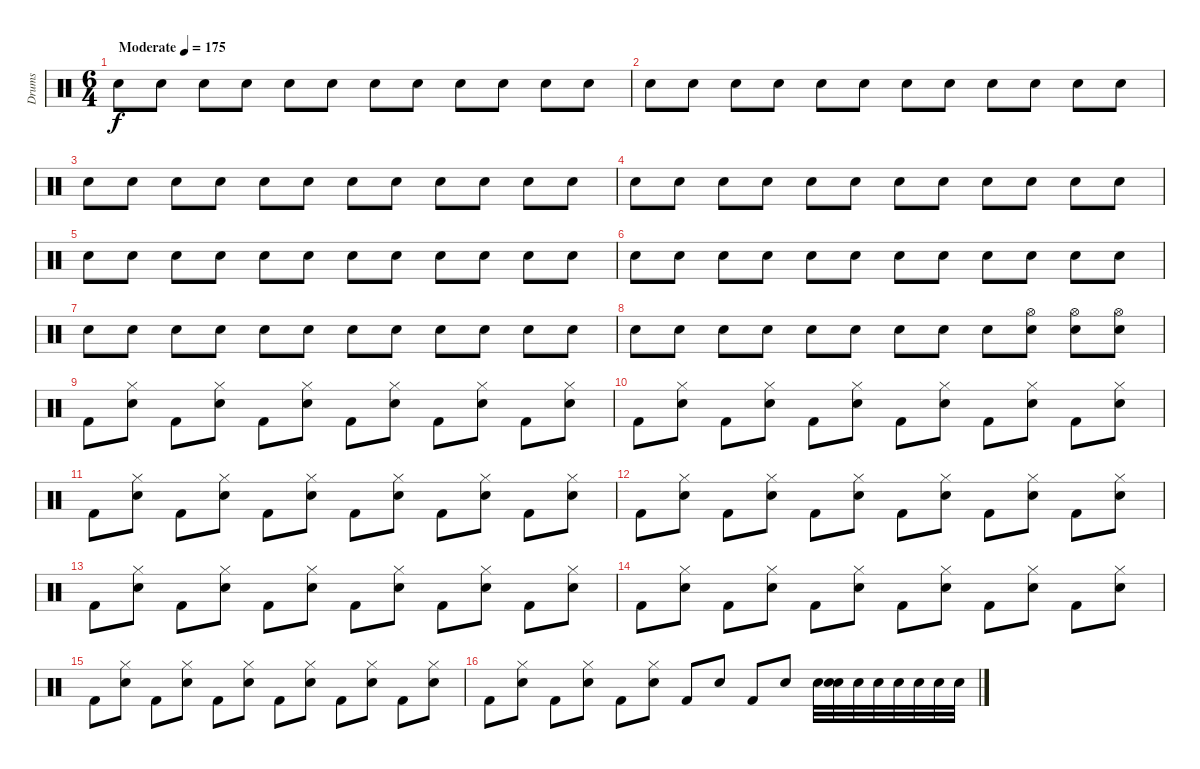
\track ("Drums" "Drums") {instrument percussion}
\staff {score}
\articulation defaults
\ts (6 4)
\tempo (175 "Moderate")
\clef neutral
\ks c "Snare (hit) 2".8{dy f} "Snare (hit) 2".8 "Snare (hit) 2".8 "Snare (hit) 2".8 "Snare (hit) 2".8 "Snare (hit) 2".8 "Snare (hit) 2".8 "Snare (hit) 2".8 "Snare (hit) 2".8 "Snare (hit) 2".8 "Snare (hit) 2".8 "Snare (hit) 2".8
|
"Snare (hit) 2".8 "Snare (hit) 2".8 "Snare (hit) 2".8 "Snare (hit) 2".8 "Snare (hit) 2".8 "Snare (hit) 2".8 "Snare (hit) 2".8 "Snare (hit) 2".8 "Snare (hit) 2".8 "Snare (hit) 2".8 "Snare (hit) 2".8 "Snare (hit) 2".8 |
"Snare (hit) 2".8 "Snare (hit) 2".8 "Snare (hit) 2".8 "Snare (hit) 2".8 "Snare (hit) 2".8 "Snare (hit) 2".8 "Snare (hit) 2".8 "Snare (hit) 2".8 "Snare (hit) 2".8 "Snare (hit) 2".8 "Snare (hit) 2".8 "Snare (hit) 2".8 |
"Snare (hit) 2".8 "Snare (hit) 2".8 "Snare (hit) 2".8 "Snare (hit) 2".8 "Snare (hit) 2".8 "Snare (hit) 2".8 "Snare (hit) 2".8 "Snare (hit) 2".8 "Snare (hit) 2".8 "Snare (hit) 2".8 "Snare (hit) 2".8 "Snare (hit) 2".8 |
"Snare (hit) 2".8 "Snare (hit) 2".8 "Snare (hit) 2".8 "Snare (hit) 2".8 "Snare (hit) 2".8 "Snare (hit) 2".8 "Snare (hit) 2".8 "Snare (hit) 2".8 "Snare (hit) 2".8 "Snare (hit) 2".8 "Snare (hit) 2".8 "Snare (hit) 2".8 |
"Snare (hit) 2".8 "Snare (hit) 2".8 "Snare (hit) 2".8 "Snare (hit) 2".8 "Snare (hit) 2".8 "Snare (hit) 2".8 "Snare (hit) 2".8 "Snare (hit) 2".8 "Snare (hit) 2".8 "Snare (hit) 2".8 "Snare (hit) 2".8 "Snare (hit) 2".8 |
"Snare (hit) 2".8 "Snare (hit) 2".8 "Snare (hit) 2".8 "Snare (hit) 2".8 "Snare (hit) 2".8 "Snare (hit) 2".8 "Snare (hit) 2".8 "Snare (hit) 2".8 "Snare (hit) 2".8 "Snare (hit) 2".8 "Snare (hit) 2".8 "Snare (hit) 2".8 |
"Snare (hit) 2".8 "Snare (hit) 2".8 "Snare (hit) 2".8 "Snare (hit) 2".8 "Snare (hit) 2".8 "Snare (hit) 2".8 "Snare (hit) 2".8 "Snare (hit) 2".8 "Snare (hit) 2".8 ("Hi-Hat (open)" "Snare (hit) 2").8 ("Hi-Hat (open)" "Snare (hit) 2").8 ("Hi-Hat (open)" "Snare (hit) 2").8 |
"Kick (hit) 2".8 ("Hi-Hat (closed)" "Snare (hit) 2").8 "Kick (hit) 2".8 ("Hi-Hat (closed)" "Snare (hit) 2").8 "Kick (hit) 2".8 ("Hi-Hat (closed)" "Snare (hit) 2").8 "Kick (hit) 2".8 ("Hi-Hat (closed)" "Snare (hit) 2").8 "Kick (hit) 2".8 ("Hi-Hat (closed)" "Snare (hit) 2").8 "Kick (hit) 2".8 ("Hi-Hat (closed)" "Snare (hit) 2").8 |
"Kick (hit) 2".8 ("Hi-Hat (closed)" "Snare (hit) 2").8 "Kick (hit) 2".8 ("Hi-Hat (closed)" "Snare (hit) 2").8 "Kick (hit) 2".8 ("Hi-Hat (closed)" "Snare (hit) 2").8 "Kick (hit) 2".8 ("Hi-Hat (closed)" "Snare (hit) 2").8 "Kick (hit) 2".8 ("Hi-Hat (closed)" "Snare (hit) 2").8 "Kick (hit) 2".8 ("Hi-Hat (closed)" "Snare (hit) 2").8 |
"Kick (hit) 2".8 ("Hi-Hat (closed)" "Snare (hit) 2").8 "Kick (hit) 2".8 ("Hi-Hat (closed)" "Snare (hit) 2").8 "Kick (hit) 2".8 ("Hi-Hat (closed)" "Snare (hit) 2").8 "Kick (hit) 2".8 ("Hi-Hat (closed)" "Snare (hit) 2").8 "Kick (hit) 2".8 ("Hi-Hat (closed)" "Snare (hit) 2").8 "Kick (hit) 2".8 ("Hi-Hat (closed)" "Snare (hit) 2").8 |
"Kick (hit) 2".8 ("Hi-Hat (closed)" "Snare (hit) 2").8 "Kick (hit) 2".8 ("Hi-Hat (closed)" "Snare (hit) 2").8 "Kick (hit) 2".8 ("Hi-Hat (closed)" "Snare (hit) 2").8 "Kick (hit) 2".8 ("Hi-Hat (closed)" "Snare (hit) 2").8 "Kick (hit) 2".8 ("Hi-Hat (closed)" "Snare (hit) 2").8 "Kick (hit) 2".8 ("Hi-Hat (closed)" "Snare (hit) 2").8 |
"Kick (hit) 2".8 ("Hi-Hat (closed)" "Snare (hit) 2").8 "Kick (hit) 2".8 ("Hi-Hat (closed)" "Snare (hit) 2").8 "Kick (hit) 2".8 ("Hi-Hat (closed)" "Snare (hit) 2").8 "Kick (hit) 2".8 ("Hi-Hat (closed)" "Snare (hit) 2").8 "Kick (hit) 2".8 ("Hi-Hat (closed)" "Snare (hit) 2").8 "Kick (hit) 2".8 ("Hi-Hat (closed)" "Snare (hit) 2").8 |
"Kick (hit) 2".8 ("Hi-Hat (closed)" "Snare (hit) 2").8 "Kick (hit) 2".8 ("Hi-Hat (closed)" "Snare (hit) 2").8 "Kick (hit) 2".8 ("Hi-Hat (closed)" "Snare (hit) 2").8 "Kick (hit) 2".8 ("Hi-Hat (closed)" "Snare (hit) 2").8 "Kick (hit) 2".8 ("Hi-Hat (closed)" "Snare (hit) 2").8 "Kick (hit) 2".8 ("Hi-Hat (closed)" "Snare (hit) 2").8 |
"Kick (hit) 2".8 ("Hi-Hat (closed)" "Snare (hit) 2").8 "Kick (hit) 2".8 ("Hi-Hat (closed)" "Snare (hit) 2").8 "Kick (hit) 2".8 ("Hi-Hat (closed)" "Snare (hit) 2").8 "Kick (hit) 2".8 ("Hi-Hat (closed)" "Snare (hit) 2").8 "Kick (hit) 2".8 ("Hi-Hat (closed)" "Snare (hit) 2").8 "Kick (hit) 2".8 ("Hi-Hat (closed)" "Snare (hit) 2").8 |
"Kick (hit) 2".8 ("Hi-Hat (closed)" "Snare (hit) 2").8 "Kick (hit) 2".8 ("Hi-Hat (closed)" "Snare (hit) 2").8 "Kick (hit) 2".8 ("Hi-Hat (closed)" "Snare (hit) 2").8 "Kick (hit) 2".8 "Snare (hit) 2".8 "Kick (hit) 2".8 "Snare (hit) 2".8 "Snare (hit) 2".32 ("Snare (hit) 2" "Snare (hit) 2").32 "Snare (hit) 2".32 "Snare (hit) 2".32 "Snare (hit) 2".32 "Snare (hit) 2".32 "Snare (hit) 2".32 "Snare (hit) 2".32
